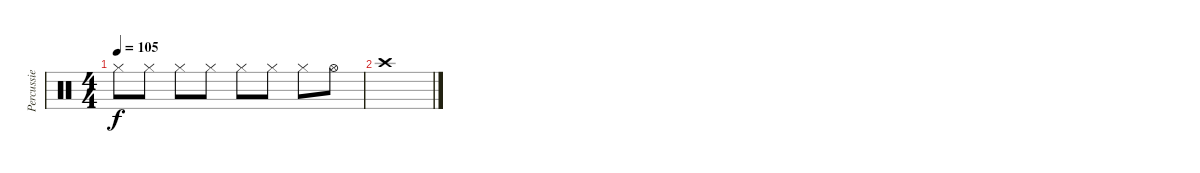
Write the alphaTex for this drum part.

\track ("Percussie" "Percussie") {instrument percussion}
\staff {score}
\articulation defaults
\ts (4 4)
\tempo 105
\clef neutral
\ks c "Hi-Hat (closed)".8{dy f} "Hi-Hat (closed)".8 "Hi-Hat (closed)".8 "Hi-Hat (closed)".8 "Hi-Hat (closed)".8 "Hi-Hat (closed)".8 "Hi-Hat (closed)".8 "Hi-Hat (open)".8
|
"Crash high (hit)".1
